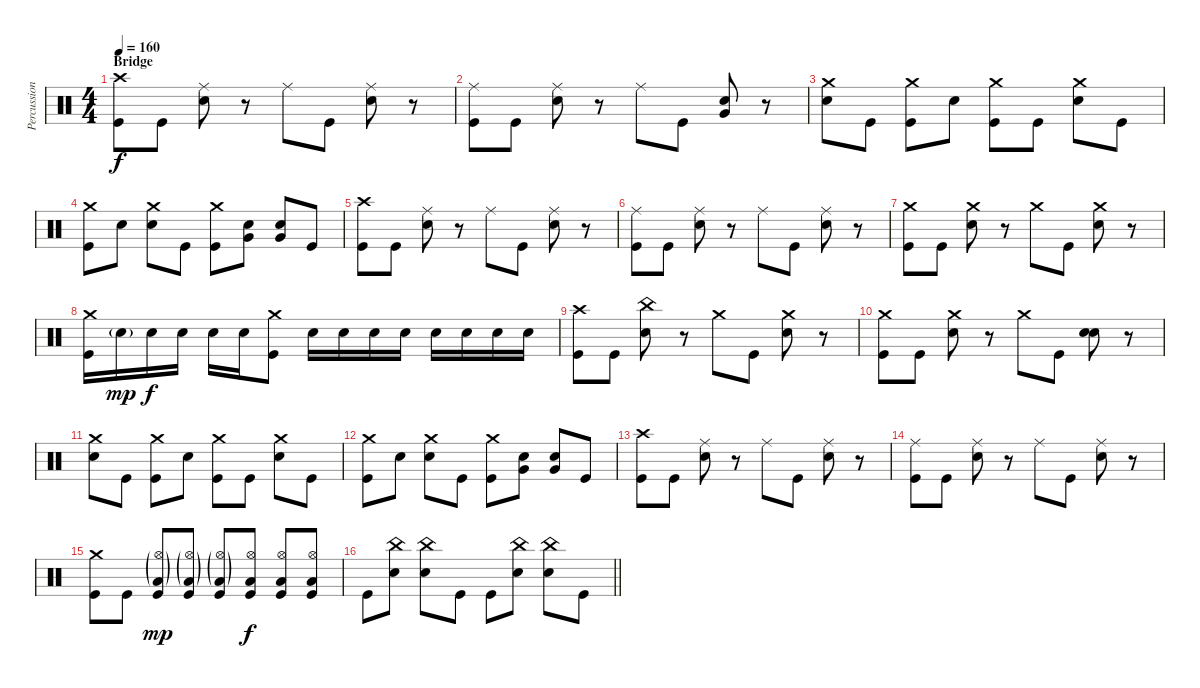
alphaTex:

\track ("Percussion" "Percussion") {instrument percussion}
\staff {score}
\articulation defaults
\ts (4 4)
\section ("" "Bridge")
\tempo 160
\clef neutral
\ks c
("Crash high (hit)" "Kick (hit)").8{dy f} "Kick (hit)".8 ("Ride (middle)" "Snare (hit) 2").8 r.8 "Ride (middle)".8 "Kick (hit)".8 ("Ride (middle)" "Snare (hit) 2").8 r.8 |
("Ride (middle)" "Kick (hit)").8 "Kick (hit)".8 ("Ride (middle)" "Snare (hit) 2").8 r.8 "Ride (middle)".8 "Kick (hit)".8 ("Very Low Tom (hit)" "Snare (hit) 2").8 r.8 |
("Crash medium (hit)" "Snare (hit) 2").8 "Kick (hit)".8 ("Crash medium (hit)" "Kick (hit)").8 "Snare (hit) 2".8 ("Crash medium (hit)" "Kick (hit)").8 "Kick (hit)".8 ("Crash medium (hit)" "Snare (hit) 2").8 "Kick (hit)".8 |
("Crash medium (hit)" "Kick (hit)").8 "Snare (hit) 2".8 ("Crash medium (hit)" "Snare (hit) 2").8 "Kick (hit)".8 ("Crash medium (hit)" "Kick (hit)").8 ("Very Low Tom (hit)" "Snare (hit) 2").8 ("Very Low Tom (hit)" "Snare (hit) 2").8 "Kick (hit)".8 |
("Crash high (hit)" "Kick (hit)").8 "Kick (hit)".8 ("Ride (middle)" "Snare (hit) 2").8 r.8 "Ride (middle)".8 "Kick (hit)".8 ("Ride (middle)" "Snare (hit) 2").8 r.8 |
("Ride (middle)" "Kick (hit)").8 "Kick (hit)".8 ("Ride (middle)" "Snare (hit) 2").8 r.8 "Ride (middle)".8 "Kick (hit)".8 ("Ride (middle)" "Snare (hit) 2").8 r.8 |
("Crash medium (hit)" "Kick (hit)").8 "Kick (hit)".8 ("Crash medium (hit)" "Snare (hit) 2").8 r.8 "Crash medium (hit)".8 "Kick (hit)".8 ("Crash medium (hit)" "Snare (hit) 2").8 r.8 |
("Crash medium (hit)" "Kick (hit)").16 "Snare (hit) 2"{g}.16{dy mp} "Snare (hit) 2".16{dy f} "Snare (hit) 2".16 "Snare (hit) 2".16 "Snare (hit) 2".16 ("Crash medium (hit)" "Kick (hit)").8 "Snare (hit) 2".16 "Snare (hit) 2".16 "Snare (hit) 2".16 "Snare (hit) 2".16 "Snare (hit) 2".16 "Snare (hit) 2".16 "Snare (hit) 2".16 "Snare (hit) 2".16 |
("Crash high (hit)" "Kick (hit)").8 "Kick (hit)".8 ("China (hit)" "Snare (hit) 2").8 r.8 "Crash medium (hit)".8 "Kick (hit)".8 ("Crash medium (hit)" "Snare (hit) 2").8 r.8 |
("Crash medium (hit)" "Kick (hit)").8 "Kick (hit)".8 ("Crash medium (hit)" "Snare (hit) 2").8 r.8 "Crash medium (hit)".8 "Kick (hit)".8 ("Snare (hit) 2" "Snare (hit) 2").8{bd 60} r.8 |
("Crash medium (hit)" "Snare (hit) 2").8 "Kick (hit)".8 ("Crash medium (hit)" "Kick (hit)").8 "Snare (hit) 2".8 ("Crash medium (hit)" "Kick (hit)").8 "Kick (hit)".8 ("Crash medium (hit)" "Snare (hit) 2").8 "Kick (hit)".8 |
("Crash medium (hit)" "Kick (hit)").8 "Snare (hit) 2".8 ("Crash medium (hit)" "Snare (hit) 2").8 "Kick (hit)".8 ("Crash medium (hit)" "Kick (hit)").8 ("Very Low Tom (hit)" "Snare (hit) 2").8 ("Very Low Tom (hit)" "Snare (hit) 2").8 "Kick (hit)".8 |
("Crash high (hit)" "Kick (hit)").8 "Kick (hit)".8 ("Ride (middle)" "Snare (hit) 2").8 r.8 "Ride (middle)".8 "Kick (hit)".8 ("Ride (middle)" "Snare (hit) 2").8 r.8 |
("Ride (middle)" "Kick (hit)").8 "Kick (hit)".8 ("Ride (middle)" "Snare (hit) 2").8 r.8 "Ride (middle)".8 "Kick (hit)".8 ("Ride (middle)" "Snare (hit) 2").8 r.8 |
("Crash medium (hit)" "Kick (hit)").8 "Kick (hit)".8 ("Hi-Hat (open)"{g} "Low Floor Tom (hit)"{g} "Kick (hit)").8{dy mp} ("Hi-Hat (open)"{g} "Low Floor Tom (hit)"{g} "Kick (hit)").8 ("Hi-Hat (open)"{g} "Low Floor Tom (hit)"{g} "Kick (hit)").8 ("Hi-Hat (open)" "Low Floor Tom (hit)" "Kick (hit)").8{dy f} ("Hi-Hat (open)" "Low Floor Tom (hit)" "Kick (hit)").8 ("Hi-Hat (open)" "Low Floor Tom (hit)" "Kick (hit)").8 |
\barLineRight lightlight "Kick (hit)".8
("China (hit)" "Snare (hit) 2").8 ("China (hit)" "Snare (hit) 2").8 "Kick (hit)".8 "Kick (hit)".8 ("China (hit)" "Snare (hit) 2").8 ("China (hit)" "Snare (hit) 2").8 "Kick (hit)".8
